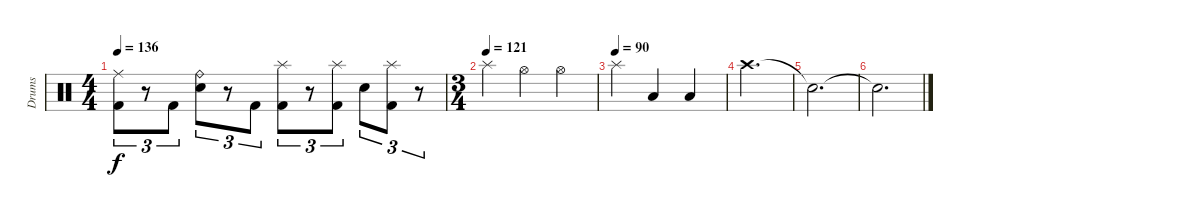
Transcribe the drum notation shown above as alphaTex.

\track ("Drums" "Drums") {instrument percussion}
\staff {score}
\articulation defaults
\ts (4 4)
\tempo 136
\clef neutral
\ks c
("Ride (middle)" "Kick (hit) 2").8{tu (3 2) dy f} r.8{tu (3 2)} "Kick (hit) 2".8{tu (3 2)} ("Ride (bell)" "Electric Snare (hit)").8{tu (3 2)} r.8{tu (3 2)} "Kick (hit) 2".8{tu (3 2)} ("Splash (hit)" "Kick (hit) 2").8{tu (3 2)} r.8{tu (3 2)} ("Splash (hit)" "Kick (hit) 2").8{tu (3 2)} "Electric Snare (hit)".8{tu (3 2)} ("Splash (hit)" "Kick (hit) 2").8{tu (3 2)} r.8{tu (3 2)} |
\ts (3 4)
\tempo (121)
"Splash (hit)".4 "Hi-Hat (open)".4 "Hi-Hat (open)".4 |
\tempo (90)
"Splash (hit)".4 "Low Tom (hit)".4 "Low Floor Tom (hit)".4 |
"Crash high (hit)".2{d} |
"Snare (hit)"{t}.2{d} |
"Snare (hit)"{t}.2{d}
